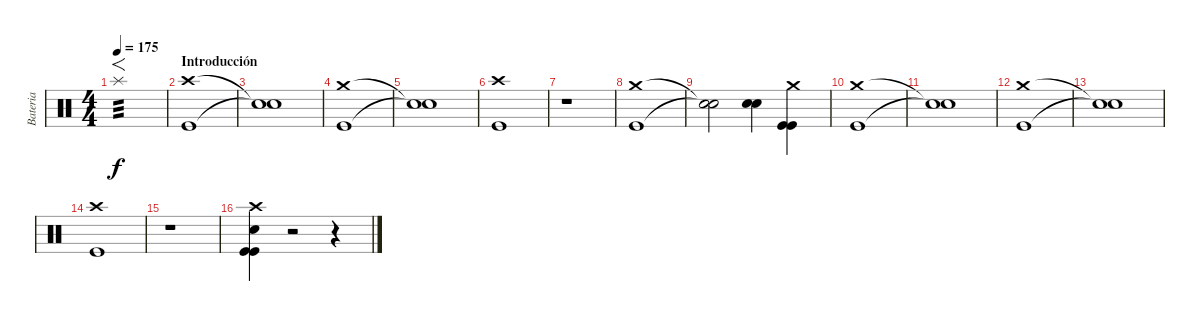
\track ("Bateria" "Bateria") {instrument percussion}
\staff {score}
\articulation defaults
\ts (4 4)
\tempo 175
\clef neutral
\ks c "Splash (hit)".1{f tp 3 dy f}
|
\section ("" "Introducción")
("Crash high (hit)" "Kick (hit)").1 |
("Snare (hit)"{t} "Snare (hit)"{t}).1 |
("Crash medium (hit)" "Kick (hit)").1 |
("Snare (hit)"{t} "Snare (hit)"{t}).1 |
("Crash high (hit)" "Kick (hit)").1 |
r.1 |
("Crash medium (hit)" "Kick (hit)").1 |
("Snare (hit)"{t} "Snare (hit)"{t}).2 ("Electric Snare (hit)" "Electric Snare (hit)").4{bd 480} ("Crash medium (hit)" "Kick (hit)" "Kick (hit)").4 |
("Crash medium (hit)" "Kick (hit)").1 |
("Snare (hit)"{t} "Snare (hit)"{t}).1 |
("Crash medium (hit)" "Kick (hit)").1 |
("Snare (hit)"{t} "Snare (hit)"{t}).1 |
("Crash high (hit)" "Kick (hit)").1 |
r.1 |
("Crash high (hit)" "Electric Snare (hit)" "Kick (hit)" "Kick (hit)").4 r.2 r.4
